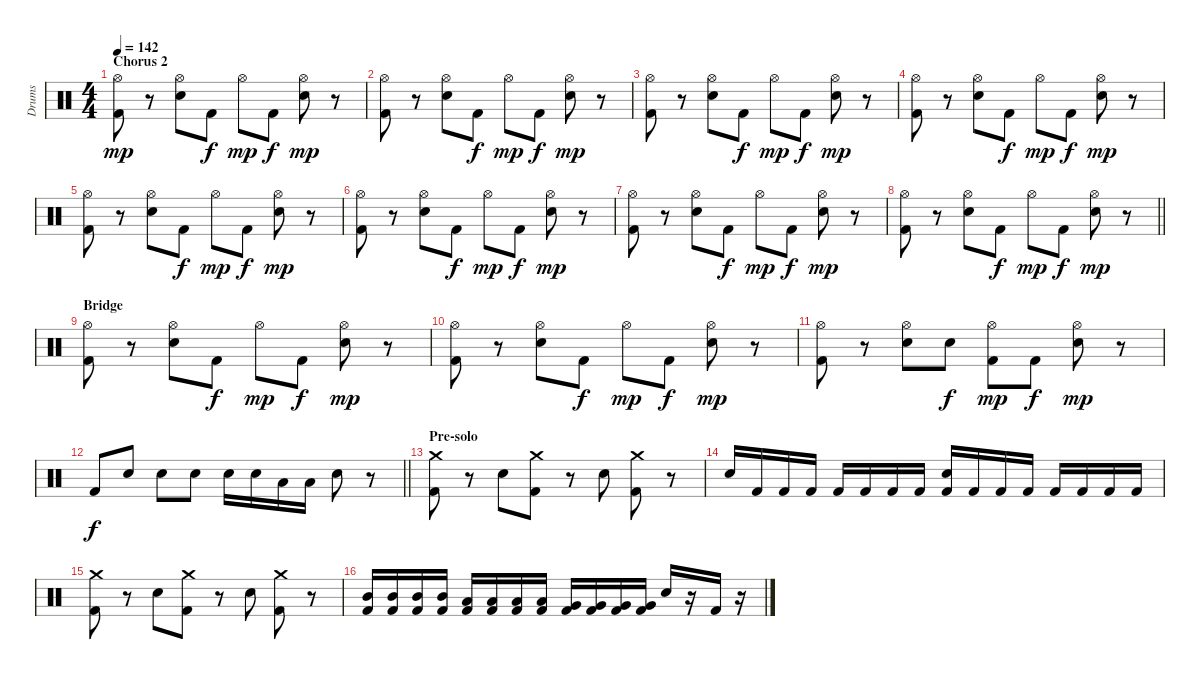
\track ("Drums" "Drums") {instrument percussion}
\staff {score}
\articulation defaults
\ts (4 4)
\section ("" "Chorus 2")
\tempo 142
\clef neutral
\ks c
("Hi-Hat (open)" "Kick (hit) 2").8{dy mp} r.8 ("Hi-Hat (open)" "Snare (hit) 2").8 "Kick (hit) 2".8{dy f} "Hi-Hat (open)".8{dy mp} "Kick (hit) 2".8{dy f} ("Hi-Hat (open)" "Snare (hit) 2").8{dy mp} r.8 |
("Hi-Hat (open)" "Kick (hit) 2").8 r.8 ("Hi-Hat (open)" "Snare (hit) 2").8 "Kick (hit) 2".8{dy f} "Hi-Hat (open)".8{dy mp} "Kick (hit) 2".8{dy f} ("Hi-Hat (open)" "Snare (hit) 2").8{dy mp} r.8 |
("Hi-Hat (open)" "Kick (hit) 2").8 r.8 ("Hi-Hat (open)" "Snare (hit) 2").8 "Kick (hit) 2".8{dy f} "Hi-Hat (open)".8{dy mp} "Kick (hit) 2".8{dy f} ("Hi-Hat (open)" "Snare (hit) 2").8{dy mp} r.8 |
("Hi-Hat (open)" "Kick (hit) 2").8 r.8 ("Hi-Hat (open)" "Snare (hit) 2").8 "Kick (hit) 2".8{dy f} "Hi-Hat (open)".8{dy mp} "Kick (hit) 2".8{dy f} ("Hi-Hat (open)" "Snare (hit) 2").8{dy mp} r.8 |
("Hi-Hat (open)" "Kick (hit) 2").8 r.8 ("Hi-Hat (open)" "Snare (hit) 2").8 "Kick (hit) 2".8{dy f} "Hi-Hat (open)".8{dy mp} "Kick (hit) 2".8{dy f} ("Hi-Hat (open)" "Snare (hit) 2").8{dy mp} r.8 |
("Hi-Hat (open)" "Kick (hit) 2").8 r.8 ("Hi-Hat (open)" "Snare (hit) 2").8 "Kick (hit) 2".8{dy f} "Hi-Hat (open)".8{dy mp} "Kick (hit) 2".8{dy f} ("Hi-Hat (open)" "Snare (hit) 2").8{dy mp} r.8 |
("Hi-Hat (open)" "Kick (hit) 2").8 r.8 ("Hi-Hat (open)" "Snare (hit) 2").8 "Kick (hit) 2".8{dy f} "Hi-Hat (open)".8{dy mp} "Kick (hit) 2".8{dy f} ("Hi-Hat (open)" "Snare (hit) 2").8{dy mp} r.8 |
\barLineRight lightlight
("Hi-Hat (open)" "Kick (hit) 2").8 r.8 ("Hi-Hat (open)" "Snare (hit) 2").8 "Kick (hit) 2".8{dy f} "Hi-Hat (open)".8{dy mp} "Kick (hit) 2".8{dy f} ("Hi-Hat (open)" "Snare (hit) 2").8{dy mp} r.8 |
\section ("" "Bridge")
("Hi-Hat (open)" "Kick (hit) 2").8 r.8 ("Hi-Hat (open)" "Snare (hit) 2").8 "Kick (hit) 2".8{dy f} "Hi-Hat (open)".8{dy mp} "Kick (hit) 2".8{dy f} ("Hi-Hat (open)" "Snare (hit) 2").8{dy mp} r.8 |
("Hi-Hat (open)" "Kick (hit) 2").8 r.8 ("Hi-Hat (open)" "Snare (hit) 2").8 "Kick (hit) 2".8{dy f} "Hi-Hat (open)".8{dy mp} "Kick (hit) 2".8{dy f} ("Hi-Hat (open)" "Snare (hit) 2").8{dy mp} r.8 |
("Hi-Hat (open)" "Kick (hit) 2").8 r.8 ("Hi-Hat (open)" "Snare (hit) 2").8 "Snare (hit) 2".8{dy f} ("Hi-Hat (open)" "Kick (hit) 2").8{dy mp} "Kick (hit) 2".8{dy f} ("Hi-Hat (open)" "Snare (hit) 2").8{dy mp} r.8 |
\barLineRight lightlight "Kick (hit) 2".8{dy f} "Snare (hit) 2".8 "Snare (hit) 2".8 "Snare (hit) 2".8 "Snare (hit) 2".16 "Snare (hit) 2".16 "Low Tom (hit)".16 "Low Tom (hit)".16 "Snare (hit) 2".8
r.8 |
\section ("" "Pre-solo")
("Crash medium (hit)" "Kick (hit) 2").8 r.8 "Snare (hit) 2".8 ("Crash medium (hit)" "Kick (hit) 2").8 r.8 "Snare (hit) 2".8 ("Crash medium (hit)" "Kick (hit) 2").8 r.8 |
"Snare (hit) 2".16 "Kick (hit) 2".16 "Kick (hit) 2".16 "Kick (hit) 2".16 "Kick (hit) 2".16 "Kick (hit) 2".16 "Kick (hit) 2".16 "Kick (hit) 2".16 ("Snare (hit) 2" "Kick (hit) 2").16 "Kick (hit) 2".16 "Kick (hit) 2".16 "Kick (hit) 2".16 "Kick (hit) 2".16 "Kick (hit) 2".16 "Kick (hit) 2".16 "Kick (hit) 2".16 |
("Crash medium (hit)" "Kick (hit) 2").8 r.8 "Snare (hit) 2".8 ("Crash medium (hit)" "Kick (hit) 2").8 r.8 "Snare (hit) 2".8 ("Crash medium (hit)" "Kick (hit) 2").8 r.8 |
("Mid Tom (hit)" "Kick (hit) 2").16 ("Mid Tom (hit)" "Kick (hit) 2").16 ("Mid Tom (hit)" "Kick (hit) 2").16 ("Mid Tom (hit)" "Kick (hit) 2").16 ("Low Tom (hit)" "Kick (hit) 2").16 ("Low Tom (hit)" "Kick (hit) 2").16 ("Low Tom (hit)" "Kick (hit) 2").16 ("Low Tom (hit)" "Kick (hit) 2").16 ("Very Low Tom (hit)" "Kick (hit) 2").16 ("Very Low Tom (hit)" "Kick (hit) 2").16 ("Very Low Tom (hit)" "Kick (hit) 2").16 ("Very Low Tom (hit)" "Kick (hit) 2").16 "Snare (hit) 2".16 r.16 "Kick (hit) 2".16 r.16
